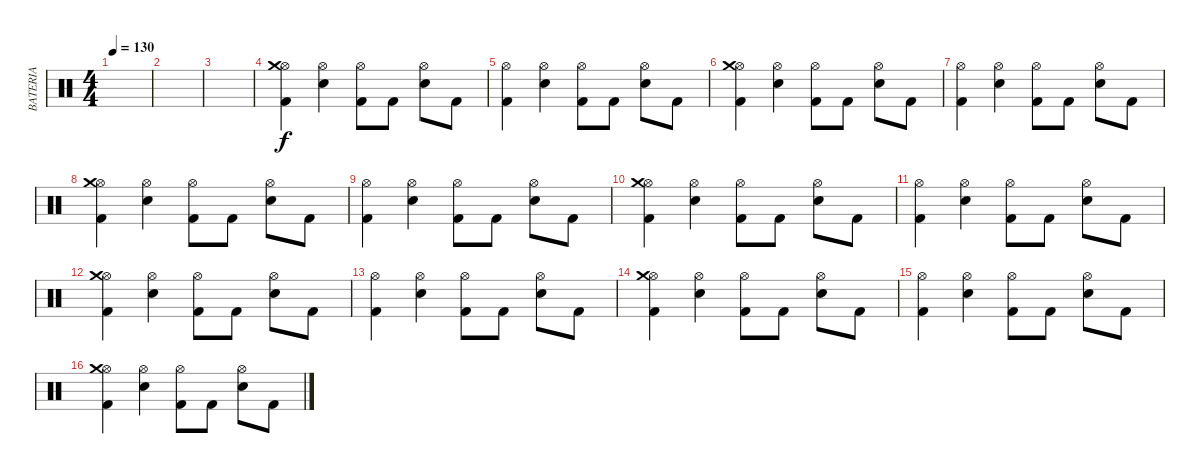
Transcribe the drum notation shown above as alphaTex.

\track ("BATERIA" "BATERIA") {instrument percussion}
\staff {score}
\articulation defaults
\ts (4 4)
\tempo 130
\clef neutral
\ks c
|
|
|
("Kick (hit) 2" "Hi-Hat (open)" "Crash medium (hit)").4 ("Electric Snare (hit)" "Hi-Hat (open)").4 ("Kick (hit) 2" "Hi-Hat (open)").8 "Kick (hit) 2".8 ("Electric Snare (hit)" "Hi-Hat (open)").8 "Kick (hit) 2".8 |
("Kick (hit) 2" "Hi-Hat (open)").4 ("Electric Snare (hit)" "Hi-Hat (open)").4 ("Kick (hit) 2" "Hi-Hat (open)").8 "Kick (hit) 2".8 ("Electric Snare (hit)" "Hi-Hat (open)").8 "Kick (hit) 2".8 |
("Kick (hit) 2" "Hi-Hat (open)" "Crash medium (hit)").4 ("Electric Snare (hit)" "Hi-Hat (open)").4 ("Kick (hit) 2" "Hi-Hat (open)").8 "Kick (hit) 2".8 ("Electric Snare (hit)" "Hi-Hat (open)").8 "Kick (hit) 2".8 |
("Kick (hit) 2" "Hi-Hat (open)").4 ("Electric Snare (hit)" "Hi-Hat (open)").4 ("Kick (hit) 2" "Hi-Hat (open)").8 "Kick (hit) 2".8 ("Electric Snare (hit)" "Hi-Hat (open)").8 "Kick (hit) 2".8 |
("Kick (hit) 2" "Hi-Hat (open)" "Crash medium (hit)").4 ("Electric Snare (hit)" "Hi-Hat (open)").4 ("Kick (hit) 2" "Hi-Hat (open)").8 "Kick (hit) 2".8 ("Electric Snare (hit)" "Hi-Hat (open)").8 "Kick (hit) 2".8 |
("Kick (hit) 2" "Hi-Hat (open)").4 ("Electric Snare (hit)" "Hi-Hat (open)").4 ("Kick (hit) 2" "Hi-Hat (open)").8 "Kick (hit) 2".8 ("Electric Snare (hit)" "Hi-Hat (open)").8 "Kick (hit) 2".8 |
("Kick (hit) 2" "Hi-Hat (open)" "Crash medium (hit)").4 ("Electric Snare (hit)" "Hi-Hat (open)").4 ("Kick (hit) 2" "Hi-Hat (open)").8 "Kick (hit) 2".8 ("Electric Snare (hit)" "Hi-Hat (open)").8 "Kick (hit) 2".8 |
("Kick (hit) 2" "Hi-Hat (open)").4 ("Electric Snare (hit)" "Hi-Hat (open)").4 ("Kick (hit) 2" "Hi-Hat (open)").8 "Kick (hit) 2".8 ("Electric Snare (hit)" "Hi-Hat (open)").8 "Kick (hit) 2".8 |
("Kick (hit) 2" "Hi-Hat (open)" "Crash medium (hit)").4 ("Electric Snare (hit)" "Hi-Hat (open)").4 ("Kick (hit) 2" "Hi-Hat (open)").8 "Kick (hit) 2".8 ("Electric Snare (hit)" "Hi-Hat (open)").8 "Kick (hit) 2".8 |
("Kick (hit) 2" "Hi-Hat (open)").4 ("Electric Snare (hit)" "Hi-Hat (open)").4 ("Kick (hit) 2" "Hi-Hat (open)").8 "Kick (hit) 2".8 ("Electric Snare (hit)" "Hi-Hat (open)").8 "Kick (hit) 2".8 |
("Kick (hit) 2" "Hi-Hat (open)" "Crash medium (hit)").4 ("Electric Snare (hit)" "Hi-Hat (open)").4 ("Kick (hit) 2" "Hi-Hat (open)").8 "Kick (hit) 2".8 ("Electric Snare (hit)" "Hi-Hat (open)").8 "Kick (hit) 2".8 |
("Kick (hit) 2" "Hi-Hat (open)").4 ("Electric Snare (hit)" "Hi-Hat (open)").4 ("Kick (hit) 2" "Hi-Hat (open)").8 "Kick (hit) 2".8 ("Electric Snare (hit)" "Hi-Hat (open)").8 "Kick (hit) 2".8 |
("Kick (hit) 2" "Hi-Hat (open)" "Crash medium (hit)").4 ("Electric Snare (hit)" "Hi-Hat (open)").4 ("Kick (hit) 2" "Hi-Hat (open)").8 "Kick (hit) 2".8 ("Electric Snare (hit)" "Hi-Hat (open)").8 "Kick (hit) 2".8
